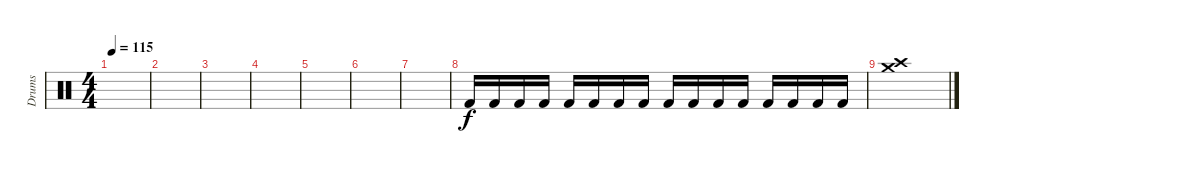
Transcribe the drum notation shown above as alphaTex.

\track ("Drums" "Drums") {instrument percussion}
\staff {score}
\articulation defaults
\ts (4 4)
\tempo 115
\clef neutral
\ks c
|
|
|
|
|
|
|
"Kick (hit) 2".16 "Kick (hit) 2".16 "Kick (hit) 2".16 "Kick (hit) 2".16 "Kick (hit) 2".16 "Kick (hit) 2".16 "Kick (hit) 2".16 "Kick (hit) 2".16 "Kick (hit) 2".16 "Kick (hit) 2".16 "Kick (hit) 2".16 "Kick (hit) 2".16 "Kick (hit) 2".16 "Kick (hit) 2".16 "Kick (hit) 2".16 "Kick (hit) 2".16 |
("Crash medium (hit)" "Crash high (hit)").1
